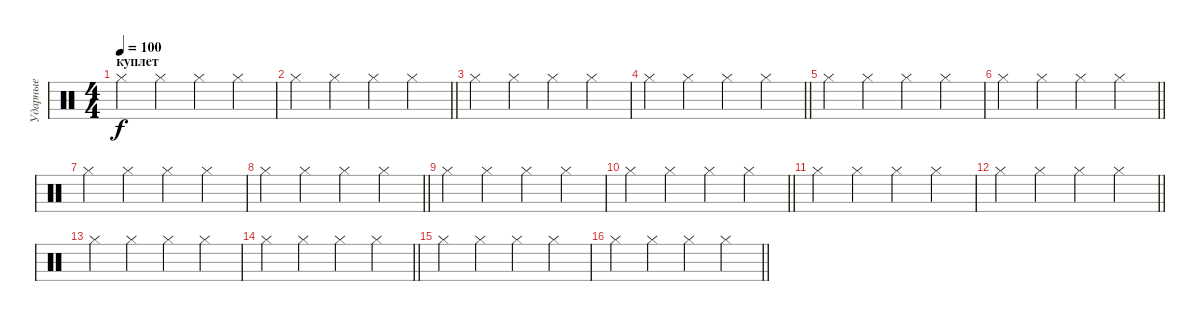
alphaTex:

\track ("Ударные" "Ударные") {instrument percussion}
\staff {score}
\articulation defaults
\ts (4 4)
\section ("" "куплет ")
\tempo 100
\clef neutral
\ks c "Hi-Hat (closed)".4{dy f} "Hi-Hat (closed)".4 "Hi-Hat (closed)".4 "Hi-Hat (closed)".4
|
\barLineRight lightlight "Hi-Hat (closed)".4 "Hi-Hat (closed)".4 "Hi-Hat (closed)".4 "Hi-Hat (closed)".4
|
"Hi-Hat (closed)".4 "Hi-Hat (closed)".4 "Hi-Hat (closed)".4 "Hi-Hat (closed)".4 |
\barLineRight lightlight "Hi-Hat (closed)".4 "Hi-Hat (closed)".4 "Hi-Hat (closed)".4 "Hi-Hat (closed)".4
|
"Hi-Hat (closed)".4 "Hi-Hat (closed)".4 "Hi-Hat (closed)".4 "Hi-Hat (closed)".4 |
\barLineRight lightlight "Hi-Hat (closed)".4 "Hi-Hat (closed)".4 "Hi-Hat (closed)".4 "Hi-Hat (closed)".4
|
"Hi-Hat (closed)".4 "Hi-Hat (closed)".4 "Hi-Hat (closed)".4 "Hi-Hat (closed)".4 |
\barLineRight lightlight "Hi-Hat (closed)".4 "Hi-Hat (closed)".4 "Hi-Hat (closed)".4 "Hi-Hat (closed)".4
|
"Hi-Hat (closed)".4 "Hi-Hat (closed)".4 "Hi-Hat (closed)".4 "Hi-Hat (closed)".4 |
\barLineRight lightlight "Hi-Hat (closed)".4 "Hi-Hat (closed)".4 "Hi-Hat (closed)".4 "Hi-Hat (closed)".4
|
"Hi-Hat (closed)".4 "Hi-Hat (closed)".4 "Hi-Hat (closed)".4 "Hi-Hat (closed)".4 |
\barLineRight lightlight "Hi-Hat (closed)".4 "Hi-Hat (closed)".4 "Hi-Hat (closed)".4 "Hi-Hat (closed)".4
|
"Hi-Hat (closed)".4 "Hi-Hat (closed)".4 "Hi-Hat (closed)".4 "Hi-Hat (closed)".4 |
\barLineRight lightlight "Hi-Hat (closed)".4 "Hi-Hat (closed)".4 "Hi-Hat (closed)".4 "Hi-Hat (closed)".4
|
"Hi-Hat (closed)".4 "Hi-Hat (closed)".4 "Hi-Hat (closed)".4 "Hi-Hat (closed)".4 |
\barLineRight lightlight "Hi-Hat (closed)".4 "Hi-Hat (closed)".4 "Hi-Hat (closed)".4 "Hi-Hat (closed)".4
